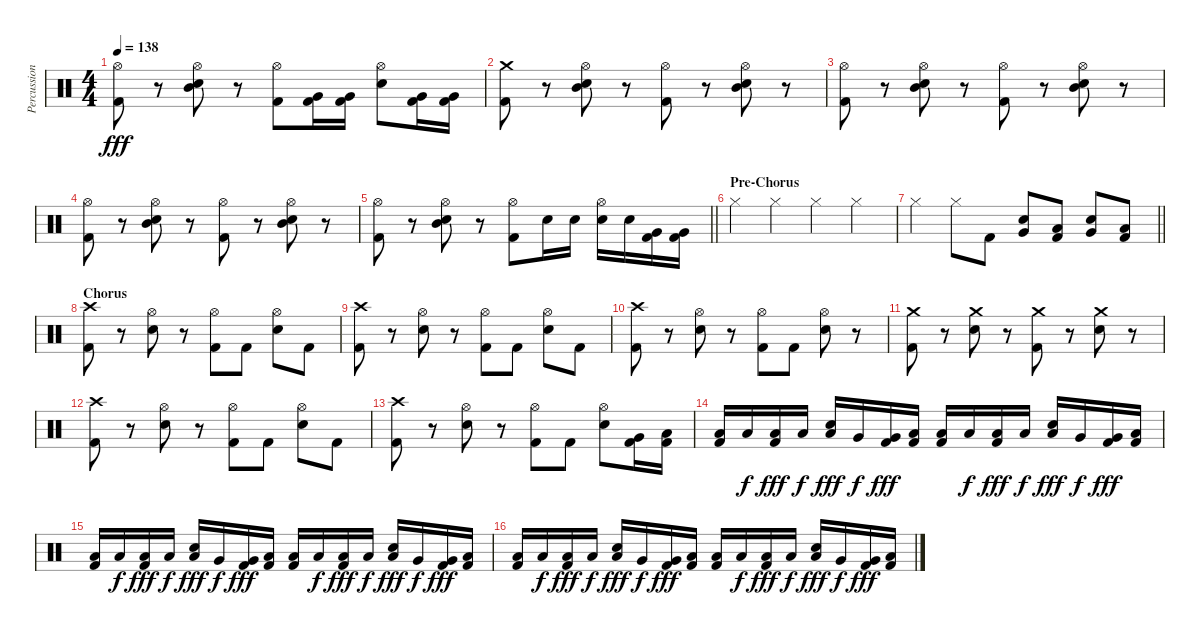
\track ("Percussion" "Percussion") {instrument percussion}
\staff {score}
\articulation defaults
\ts (4 4)
\tempo 138
\clef neutral
\ks c
("Kick (hit) 2" "Hi-Hat (open)").8{dy fff} r.8 ("Snare (hit) 2" "Mid Tom (hit)" "Hi-Hat (open)").8 r.8 ("Kick (hit) 2" "Hi-Hat (open)").8 ("Kick (hit) 2" "Very Low Tom (hit)").16 ("Kick (hit) 2" "Very Low Tom (hit)").16 ("Snare (hit) 2" "Hi-Hat (open)").8 ("Kick (hit) 2" "Very Low Tom (hit)").16 ("Kick (hit) 2" "Very Low Tom (hit)").16 |
("Kick (hit) 2" "Crash medium (hit)").8 r.8 ("Snare (hit) 2" "Mid Tom (hit)" "Hi-Hat (open)").8 r.8 ("Kick (hit) 2" "Hi-Hat (open)").8 r.8 ("Snare (hit) 2" "Mid Tom (hit)" "Hi-Hat (open)").8 r.8 |
("Kick (hit) 2" "Hi-Hat (open)").8 r.8 ("Snare (hit) 2" "Mid Tom (hit)" "Hi-Hat (open)").8 r.8 ("Kick (hit) 2" "Hi-Hat (open)").8 r.8 ("Snare (hit) 2" "Mid Tom (hit)" "Hi-Hat (open)").8 r.8 |
("Kick (hit) 2" "Hi-Hat (open)").8 r.8 ("Snare (hit) 2" "Mid Tom (hit)" "Hi-Hat (open)").8 r.8 ("Kick (hit) 2" "Hi-Hat (open)").8 r.8 ("Snare (hit) 2" "Mid Tom (hit)" "Hi-Hat (open)").8 r.8 |
\barLineRight lightlight
("Kick (hit) 2" "Hi-Hat (open)").8 r.8 ("Snare (hit) 2" "Mid Tom (hit)" "Hi-Hat (open)").8 r.8 ("Kick (hit) 2" "Hi-Hat (open)").8 "Snare (hit) 2".16 "Snare (hit) 2".16 ("Snare (hit) 2" "Hi-Hat (open)").16 "Snare (hit) 2".16 ("Kick (hit) 2" "Very Low Tom (hit)").16 ("Kick (hit) 2" "Very Low Tom (hit)").16 |
\section ("" "Pre-Chorus")
"Hi-Hat (closed)".4 "Hi-Hat (closed)".4 "Hi-Hat (closed)".4 "Hi-Hat (closed)".4 |
\barLineRight lightlight "Hi-Hat (closed)".4 "Hi-Hat (closed)".8 "Kick (hit) 2".8
("Snare (hit) 2" "Very Low Tom (hit)").8 ("Kick (hit) 2" "Low Floor Tom (hit)").8 ("Snare (hit) 2" "Very Low Tom (hit)").8 ("Kick (hit) 2" "Low Floor Tom (hit)").8 |
\section ("" "Chorus")
("Kick (hit) 2" "Crash high (hit)").8 r.8 ("Snare (hit) 2" "Hi-Hat (open)").8 r.8 ("Kick (hit) 2" "Hi-Hat (open)").8 "Kick (hit) 2".8 ("Snare (hit) 2" "Hi-Hat (open)").8 "Kick (hit) 2".8 |
("Kick (hit) 2" "Crash high (hit)").8 r.8 ("Snare (hit) 2" "Hi-Hat (open)").8 r.8 ("Kick (hit) 2" "Hi-Hat (open)").8 "Kick (hit) 2".8 ("Snare (hit) 2" "Hi-Hat (open)").8 "Kick (hit) 2".8 |
("Kick (hit) 2" "Crash high (hit)").8 r.8 ("Snare (hit) 2" "Hi-Hat (open)").8 r.8 ("Kick (hit) 2" "Hi-Hat (open)").8 "Kick (hit) 2".8 ("Snare (hit) 2" "Hi-Hat (open)").8 r.8 |
("Kick (hit) 2" "Crash medium (hit)").8 r.8 ("Snare (hit) 2" "Crash medium (hit)").8 r.8 ("Kick (hit) 2" "Crash medium (hit)").8 r.8 ("Snare (hit) 2" "Crash medium (hit)").8 r.8 |
("Kick (hit) 2" "Crash high (hit)").8 r.8 ("Snare (hit) 2" "Hi-Hat (open)").8 r.8 ("Kick (hit) 2" "Hi-Hat (open)").8 "Kick (hit) 2".8 ("Snare (hit) 2" "Hi-Hat (open)").8 "Kick (hit) 2".8 |
("Kick (hit) 2" "Crash high (hit)").8 r.8 ("Snare (hit) 2" "Hi-Hat (open)").8 r.8 ("Kick (hit) 2" "Hi-Hat (open)").8 "Kick (hit) 2".8 ("Snare (hit) 2" "Hi-Hat (open)").8 ("Kick (hit) 2" "Very Low Tom (hit)").16 ("Kick (hit) 2" "Low Tom (hit)").16 |
("Kick (hit) 2" "Low Tom (hit)").16 "Low Floor Tom (hit)".16{dy f} ("Kick (hit) 2" "Low Floor Tom (hit)").16{dy fff} "Low Floor Tom (hit)".16{dy f} ("Snare (hit) 2" "Low Floor Tom (hit)").16{dy fff} "Very Low Tom (hit)".16{dy f} ("Kick (hit) 2" "Very Low Tom (hit)").16{dy fff} ("Kick (hit) 2" "Low Tom (hit)").16 ("Kick (hit) 2" "Low Tom (hit)").16 "Low Floor Tom (hit)".16{dy f} ("Kick (hit) 2" "Low Floor Tom (hit)").16{dy fff} "Low Floor Tom (hit)".16{dy f} ("Snare (hit) 2" "Low Floor Tom (hit)").16{dy fff} "Very Low Tom (hit)".16{dy f} ("Kick (hit) 2" "Very Low Tom (hit)").16{dy fff} ("Kick (hit) 2" "Low Tom (hit)").16 |
("Kick (hit) 2" "Low Tom (hit)").16 "Low Floor Tom (hit)".16{dy f} ("Kick (hit) 2" "Low Floor Tom (hit)").16{dy fff} "Low Floor Tom (hit)".16{dy f} ("Snare (hit) 2" "Low Floor Tom (hit)").16{dy fff} "Very Low Tom (hit)".16{dy f} ("Kick (hit) 2" "Very Low Tom (hit)").16{dy fff} ("Kick (hit) 2" "Low Tom (hit)").16 ("Kick (hit) 2" "Low Tom (hit)").16 "Low Floor Tom (hit)".16{dy f} ("Kick (hit) 2" "Low Floor Tom (hit)").16{dy fff} "Low Floor Tom (hit)".16{dy f} ("Snare (hit) 2" "Low Floor Tom (hit)").16{dy fff} "Very Low Tom (hit)".16{dy f} ("Kick (hit) 2" "Very Low Tom (hit)").16{dy fff} ("Kick (hit) 2" "Low Tom (hit)").16 |
("Kick (hit) 2" "Low Tom (hit)").16 "Low Floor Tom (hit)".16{dy f} ("Kick (hit) 2" "Low Floor Tom (hit)").16{dy fff} "Low Floor Tom (hit)".16{dy f} ("Snare (hit) 2" "Low Floor Tom (hit)").16{dy fff} "Very Low Tom (hit)".16{dy f} ("Kick (hit) 2" "Very Low Tom (hit)").16{dy fff} ("Kick (hit) 2" "Low Tom (hit)").16 ("Kick (hit) 2" "Low Tom (hit)").16 "Low Floor Tom (hit)".16{dy f} ("Kick (hit) 2" "Low Floor Tom (hit)").16{dy fff} "Low Floor Tom (hit)".16{dy f} ("Snare (hit) 2" "Low Floor Tom (hit)").16{dy fff} "Very Low Tom (hit)".16{dy f} ("Kick (hit) 2" "Very Low Tom (hit)").16{dy fff} ("Kick (hit) 2" "Low Tom (hit)").16
